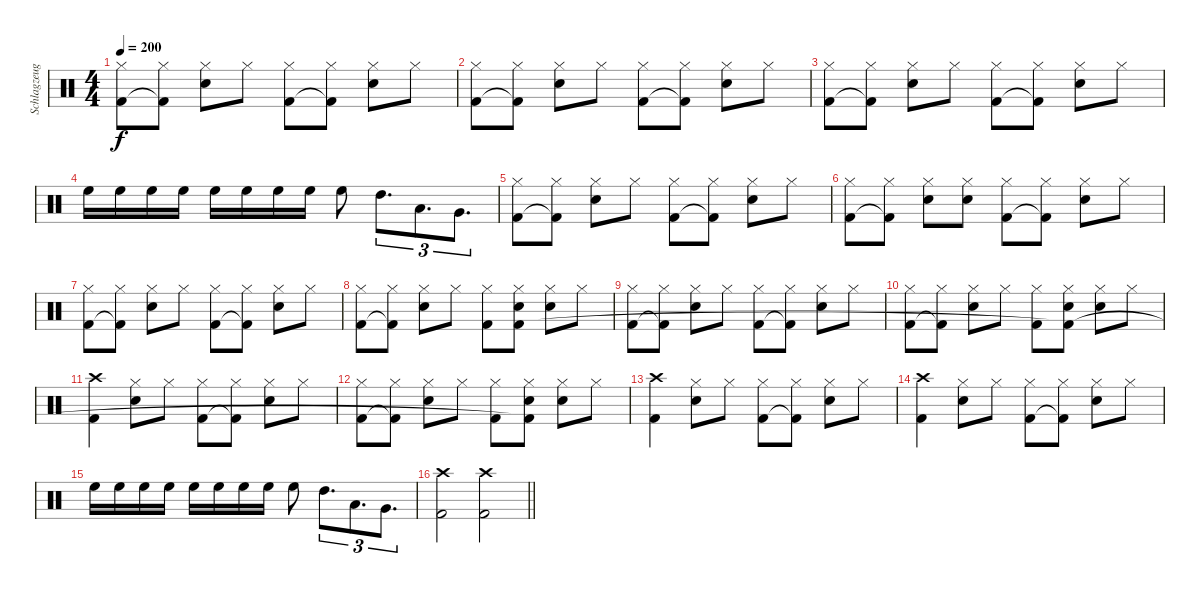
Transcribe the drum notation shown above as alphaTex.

\track ("Schlagzeug" "Schlagzeug") {instrument percussion}
\staff {score}
\articulation defaults
\ts (4 4)
\tempo 200
\clef neutral
\ks c
("Hi-Hat (closed)" "Kick (hit) 2").8{dy f} ("Hi-Hat (closed)" "Kick (hit) 2"{t}).8 ("Hi-Hat (closed)" "Electric Snare (hit)").8 "Hi-Hat (closed)".8 ("Hi-Hat (closed)" "Kick (hit) 2").8 ("Hi-Hat (closed)" "Kick (hit) 2"{t}).8 ("Hi-Hat (closed)" "Electric Snare (hit)").8 "Hi-Hat (closed)".8 |
("Hi-Hat (closed)" "Kick (hit) 2").8 ("Hi-Hat (closed)" "Kick (hit) 2"{t}).8 ("Hi-Hat (closed)" "Electric Snare (hit)").8 "Hi-Hat (closed)".8 ("Hi-Hat (closed)" "Kick (hit) 2").8 ("Hi-Hat (closed)" "Kick (hit) 2"{t}).8 ("Hi-Hat (closed)" "Electric Snare (hit)").8 "Hi-Hat (closed)".8 |
("Hi-Hat (closed)" "Kick (hit) 2").8 ("Hi-Hat (closed)" "Kick (hit) 2"{t}).8 ("Hi-Hat (closed)" "Electric Snare (hit)").8 "Hi-Hat (closed)".8 ("Hi-Hat (closed)" "Kick (hit) 2").8 ("Hi-Hat (closed)" "Kick (hit) 2"{t}).8 ("Hi-Hat (closed)" "Electric Snare (hit)").8 "Hi-Hat (closed)".8 |
"High Floor Tom (hit)".16 "High Floor Tom (hit)".16 "High Floor Tom (hit)".16 "High Floor Tom (hit)".16 "High Floor Tom (hit)".16 "High Floor Tom (hit)".16 "High Floor Tom (hit)".16 "High Floor Tom (hit)".16 "High Floor Tom (hit)".8 "High Tom (hit)".8{d tu (3 2)} "Low Tom (hit)".8{d tu (3 2)} "Very Low Tom (hit)".8{d tu (3 2)} |
("Hi-Hat (closed)" "Kick (hit) 2").8 ("Hi-Hat (closed)" "Kick (hit) 2"{t}).8 ("Hi-Hat (closed)" "Electric Snare (hit)").8 "Hi-Hat (closed)".8 ("Hi-Hat (closed)" "Kick (hit) 2").8 ("Hi-Hat (closed)" "Kick (hit) 2"{t}).8 ("Hi-Hat (closed)" "Electric Snare (hit)").8 "Hi-Hat (closed)".8 |
("Hi-Hat (closed)" "Kick (hit) 2").8 ("Hi-Hat (closed)" "Kick (hit) 2"{t}).8 ("Hi-Hat (closed)" "Electric Snare (hit)").8 ("Hi-Hat (closed)" "Electric Snare (hit)").8 ("Hi-Hat (closed)" "Kick (hit) 2").8 ("Hi-Hat (closed)" "Kick (hit) 2"{t}).8 ("Hi-Hat (closed)" "Electric Snare (hit)").8 "Hi-Hat (closed)".8 |
("Hi-Hat (closed)" "Kick (hit) 2").8 ("Hi-Hat (closed)" "Kick (hit) 2"{t}).8 ("Hi-Hat (closed)" "Electric Snare (hit)").8 "Hi-Hat (closed)".8 ("Hi-Hat (closed)" "Kick (hit) 2").8 ("Hi-Hat (closed)" "Kick (hit) 2"{t}).8 ("Hi-Hat (closed)" "Electric Snare (hit)").8 "Hi-Hat (closed)".8 |
("Hi-Hat (closed)" "Kick (hit) 2").8 ("Hi-Hat (closed)" "Kick (hit) 2"{t}).8 ("Hi-Hat (closed)" "Electric Snare (hit)").8 "Hi-Hat (closed)".8 ("Hi-Hat (closed)" "Kick (hit) 2").8 ("Hi-Hat (closed)" "Electric Snare (hit)" "Kick (hit) 2").8 ("Hi-Hat (closed)" "Electric Snare (hit)").8 "Hi-Hat (closed)".8 |
("Hi-Hat (closed)" "Kick (hit) 2").8 ("Hi-Hat (closed)" "Kick (hit) 2"{t}).8 ("Hi-Hat (closed)" "Electric Snare (hit)").8 "Hi-Hat (closed)".8 ("Hi-Hat (closed)" "Kick (hit) 2").8 ("Hi-Hat (closed)" "Kick (hit) 2"{t}).8 ("Hi-Hat (closed)" "Electric Snare (hit)").8 "Hi-Hat (closed)".8 |
("Hi-Hat (closed)" "Kick (hit) 2").8 ("Hi-Hat (closed)" "Kick (hit) 2"{t}).8 ("Hi-Hat (closed)" "Electric Snare (hit)").8 "Hi-Hat (closed)".8 ("Hi-Hat (closed)" "Kick (hit) 2").8 ("Hi-Hat (closed)" "Electric Snare (hit)" "Kick (hit) 2"{t}).8 ("Hi-Hat (closed)" "Electric Snare (hit)").8 "Hi-Hat (closed)".8 |
("Crash high (hit)" "Kick (hit) 2").4 ("Hi-Hat (closed)" "Electric Snare (hit)").8 "Hi-Hat (closed)".8 ("Hi-Hat (closed)" "Kick (hit) 2").8 ("Hi-Hat (closed)" "Kick (hit) 2"{t}).8 ("Hi-Hat (closed)" "Electric Snare (hit)").8 "Hi-Hat (closed)".8 |
("Hi-Hat (closed)" "Kick (hit) 2").8 ("Hi-Hat (closed)" "Kick (hit) 2"{t}).8 ("Hi-Hat (closed)" "Electric Snare (hit)").8 "Hi-Hat (closed)".8 ("Hi-Hat (closed)" "Kick (hit) 2").8 ("Hi-Hat (closed)" "Electric Snare (hit)" "Kick (hit) 2"{t}).8 ("Hi-Hat (closed)" "Electric Snare (hit)").8 "Hi-Hat (closed)".8 |
("Crash high (hit)" "Kick (hit) 2").4 ("Hi-Hat (closed)" "Electric Snare (hit)").8 "Hi-Hat (closed)".8 ("Hi-Hat (closed)" "Kick (hit) 2").8 ("Hi-Hat (closed)" "Kick (hit) 2"{t}).8 ("Hi-Hat (closed)" "Electric Snare (hit)").8 "Hi-Hat (closed)".8 |
("Crash high (hit)" "Kick (hit) 2").4 ("Hi-Hat (closed)" "Electric Snare (hit)").8 "Hi-Hat (closed)".8 ("Hi-Hat (closed)" "Kick (hit) 2").8 ("Hi-Hat (closed)" "Kick (hit) 2"{t}).8 ("Hi-Hat (closed)" "Electric Snare (hit)").8 "Hi-Hat (closed)".8 |
"High Floor Tom (hit)".16 "High Floor Tom (hit)".16 "High Floor Tom (hit)".16 "High Floor Tom (hit)".16 "High Floor Tom (hit)".16 "High Floor Tom (hit)".16 "High Floor Tom (hit)".16 "High Floor Tom (hit)".16 "High Floor Tom (hit)".8 "High Tom (hit)".8{d tu (3 2)} "Low Tom (hit)".8{d tu (3 2)} "Very Low Tom (hit)".8{d tu (3 2)} |
\barLineRight lightlight
("Crash high (hit)" "Kick (hit) 2").2 ("Crash high (hit)" "Kick (hit) 2").2
